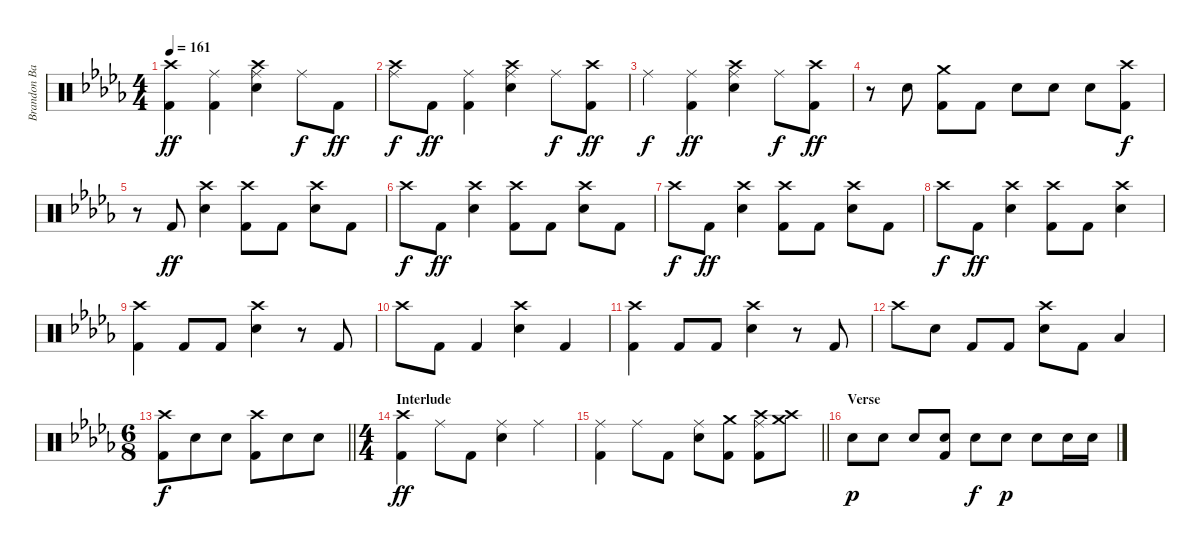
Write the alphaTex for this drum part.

\track ("Brandon Barnes - Drums" "Brandon Ba") {instrument percussion}
\staff {score}
\articulation defaults
\ts (4 4)
\tempo 161
\clef neutral
\ks db
("Kick (hit) 2" "Crash high (hit)").4{dy ff} ("Kick (hit) 2" "Ride (middle)").4 ("Snare (hit) 2" "Crash high (hit)" "Ride (middle)").4 "Ride (middle)".8{dy f} "Kick (hit) 2".8{dy ff} |
("Crash high (hit)" "Ride (middle)").8{dy f} "Kick (hit) 2".8{dy ff} ("Kick (hit) 2" "Ride (middle)").4 ("Snare (hit) 2" "Crash high (hit)" "Ride (middle)").4 "Ride (middle)".8{dy f} ("Kick (hit) 2" "Crash high (hit)").8{dy ff} |
"Ride (middle)".4{dy f} ("Ride (middle)" "Kick (hit) 2").4{dy ff} ("Snare (hit) 2" "Crash high (hit)" "Ride (middle)").4 "Ride (middle)".8{dy f} ("Kick (hit) 2" "Crash high (hit)").8{dy ff} |
r.8 "Snare (hit) 2".8 ("Kick (hit) 2" "Crash medium (hit)").8 "Kick (hit) 2".8 "Snare (hit) 2".8 "Snare (hit) 2".8 "Snare (hit) 2".8 ("Crash high (hit)" "Kick (hit) 2").8{dy f} |
r.8 "Kick (hit) 2".8{dy ff} ("Snare (hit) 2" "Crash high (hit)").4 ("Kick (hit) 2" "Crash high (hit)").8 "Kick (hit) 2".8 ("Snare (hit) 2" "Crash high (hit)").8 "Kick (hit) 2".8 |
"Crash high (hit)".8{dy f} "Kick (hit) 2".8{dy ff} ("Snare (hit) 2" "Crash high (hit)").4 ("Kick (hit) 2" "Crash high (hit)").8 "Kick (hit) 2".8 ("Snare (hit) 2" "Crash high (hit)").8 "Kick (hit) 2".8 |
"Crash high (hit)".8{dy f} "Kick (hit) 2".8{dy ff} ("Snare (hit) 2" "Crash high (hit)").4 ("Kick (hit) 2" "Crash high (hit)").8 "Kick (hit) 2".8 ("Snare (hit) 2" "Crash high (hit)").8 "Kick (hit) 2".8 |
"Crash high (hit)".8{dy f} "Kick (hit) 2".8{dy ff} ("Snare (hit) 2" "Crash high (hit)").4 ("Kick (hit) 2" "Crash high (hit)").8 "Kick (hit) 2".8 ("Snare (hit) 2" "Crash high (hit)").4 |
("Crash high (hit)" "Kick (hit) 2").4 "Kick (hit) 2".8 "Kick (hit) 2".8 ("Snare (hit) 2" "Crash high (hit)").4 r.8 "Kick (hit) 2".8 |
"Crash high (hit)".8 "Kick (hit) 2".8 "Kick (hit) 2".4 ("Snare (hit) 2" "Crash high (hit)").4 "Kick (hit) 2".4 |
("Crash high (hit)" "Kick (hit) 2").4 "Kick (hit) 2".8 "Kick (hit) 2".8 ("Snare (hit) 2" "Crash high (hit)").4 r.8 "Kick (hit) 2".8 |
"Crash high (hit)".8 "Snare (hit) 2".8 "Kick (hit) 2".8 "Kick (hit) 2".8 ("Snare (hit) 2" "Crash high (hit)").8 "Kick (hit) 2".8 "Low Tom (hit)".4 |
\ts (6 8)
\barLineRight lightlight
("Kick (hit) 2" "Crash high (hit)").8{dy f} "Snare (hit) 2".8 "Snare (hit) 2".8 ("Kick (hit) 2" "Crash high (hit)").8 "Snare (hit) 2".8 "Snare (hit) 2".8 |
\ts (4 4)
\section ("" "Interlude")
("Crash high (hit)" "Kick (hit) 2").4{dy ff} "Ride (middle)".8 "Kick (hit) 2".8 ("Snare (hit) 2" "Ride (middle)").4 "Ride (middle)".4 |
\barLineRight lightlight
("Ride (middle)" "Kick (hit) 2").4 "Ride (middle)".8 "Kick (hit) 2".8 ("Snare (hit) 2" "Ride (middle)").8 ("Kick (hit) 2" "Crash medium (hit)").8 ("Kick (hit) 2" "Ride (middle)" "Crash high (hit)").8 ("Crash medium (hit)" "Crash high (hit)").8 |
\section ("" "Verse")
"Snare (hit) 2".8{dy p} "Snare (hit) 2".8 "Snare (hit) 2".8 ("Snare (hit) 2" "Kick (hit) 2").8 "Snare (hit) 2".8{dy f} "Snare (hit) 2".8{dy p} "Snare (hit) 2".8 "Snare (hit) 2".16 "Snare (hit) 2".16
